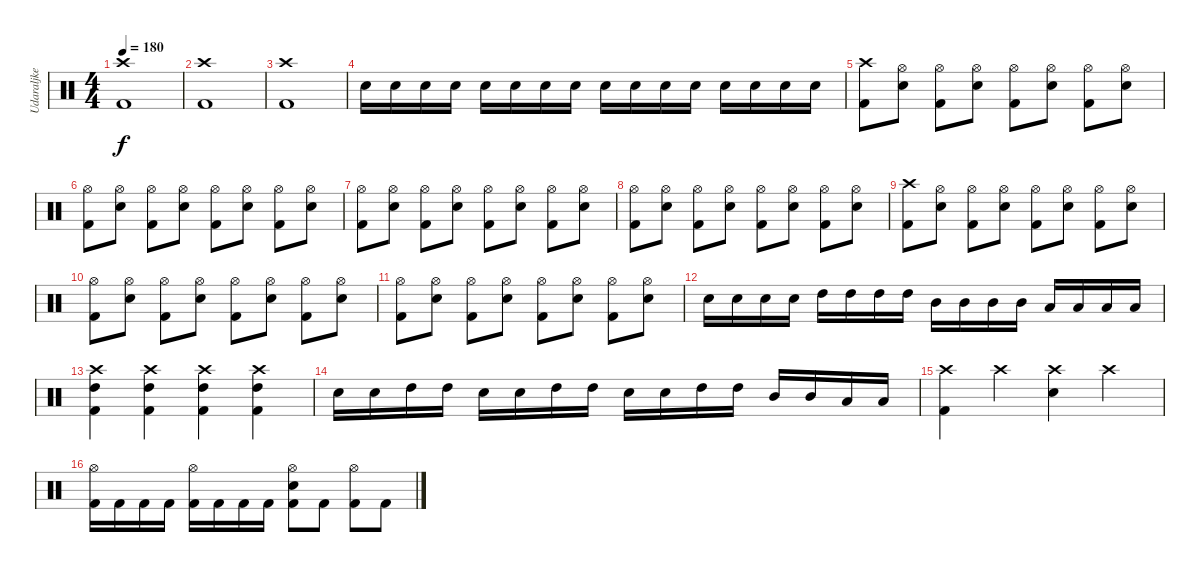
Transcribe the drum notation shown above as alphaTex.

\track ("Udaraljke" "Udaraljke") {instrument percussion}
\staff {score}
\articulation defaults
\ts (4 4)
\tempo 180
\clef neutral
\ks c
("Crash high (hit)" "Kick (hit) 2").1{dy f} |
("Crash high (hit)" "Kick (hit) 2").1 |
("Crash high (hit)" "Kick (hit) 2").1 |
"Electric Snare (hit)".16 "Electric Snare (hit)".16 "Electric Snare (hit)".16 "Electric Snare (hit)".16 "Electric Snare (hit)".16 "Electric Snare (hit)".16 "Electric Snare (hit)".16 "Electric Snare (hit)".16 "Electric Snare (hit)".16 "Electric Snare (hit)".16 "Electric Snare (hit)".16 "Electric Snare (hit)".16 "Electric Snare (hit)".16 "Electric Snare (hit)".16 "Electric Snare (hit)".16 "Electric Snare (hit)".16 |
("Crash high (hit)" "Kick (hit) 2").8 ("Hi-Hat (open)" "Electric Snare (hit)").8 ("Hi-Hat (open)" "Kick (hit) 2").8 ("Hi-Hat (open)" "Electric Snare (hit)").8 ("Hi-Hat (open)" "Kick (hit) 2").8 ("Hi-Hat (open)" "Electric Snare (hit)").8 ("Hi-Hat (open)" "Kick (hit) 2").8 ("Hi-Hat (open)" "Electric Snare (hit)").8 |
("Hi-Hat (open)" "Kick (hit) 2").8 ("Hi-Hat (open)" "Electric Snare (hit)").8 ("Hi-Hat (open)" "Kick (hit) 2").8 ("Hi-Hat (open)" "Electric Snare (hit)").8 ("Hi-Hat (open)" "Kick (hit) 2").8 ("Hi-Hat (open)" "Electric Snare (hit)").8 ("Hi-Hat (open)" "Kick (hit) 2").8 ("Hi-Hat (open)" "Electric Snare (hit)").8 |
("Hi-Hat (open)" "Kick (hit) 2").8 ("Hi-Hat (open)" "Electric Snare (hit)").8 ("Hi-Hat (open)" "Kick (hit) 2").8 ("Hi-Hat (open)" "Electric Snare (hit)").8 ("Hi-Hat (open)" "Kick (hit) 2").8 ("Hi-Hat (open)" "Electric Snare (hit)").8 ("Hi-Hat (open)" "Kick (hit) 2").8 ("Hi-Hat (open)" "Electric Snare (hit)").8 |
("Hi-Hat (open)" "Kick (hit) 2").8 ("Hi-Hat (open)" "Electric Snare (hit)").8 ("Hi-Hat (open)" "Kick (hit) 2").8 ("Hi-Hat (open)" "Electric Snare (hit)").8 ("Hi-Hat (open)" "Kick (hit) 2").8 ("Hi-Hat (open)" "Electric Snare (hit)").8 ("Hi-Hat (open)" "Kick (hit) 2").8 ("Hi-Hat (open)" "Electric Snare (hit)").8 |
("Crash high (hit)" "Kick (hit) 2").8 ("Hi-Hat (open)" "Electric Snare (hit)").8 ("Hi-Hat (open)" "Kick (hit) 2").8 ("Hi-Hat (open)" "Electric Snare (hit)").8 ("Hi-Hat (open)" "Kick (hit) 2").8 ("Hi-Hat (open)" "Electric Snare (hit)").8 ("Hi-Hat (open)" "Kick (hit) 2").8 ("Hi-Hat (open)" "Electric Snare (hit)").8 |
("Hi-Hat (open)" "Kick (hit) 2").8 ("Hi-Hat (open)" "Electric Snare (hit)").8 ("Hi-Hat (open)" "Kick (hit) 2").8 ("Hi-Hat (open)" "Electric Snare (hit)").8 ("Hi-Hat (open)" "Kick (hit) 2").8 ("Hi-Hat (open)" "Electric Snare (hit)").8 ("Hi-Hat (open)" "Kick (hit) 2").8 ("Hi-Hat (open)" "Electric Snare (hit)").8 |
("Hi-Hat (open)" "Kick (hit) 2").8 ("Hi-Hat (open)" "Electric Snare (hit)").8 ("Hi-Hat (open)" "Kick (hit) 2").8 ("Hi-Hat (open)" "Electric Snare (hit)").8 ("Hi-Hat (open)" "Kick (hit) 2").8 ("Hi-Hat (open)" "Electric Snare (hit)").8 ("Hi-Hat (open)" "Kick (hit) 2").8 ("Hi-Hat (open)" "Electric Snare (hit)").8 |
"Electric Snare (hit)".16 "Electric Snare (hit)".16 "Electric Snare (hit)".16 "Electric Snare (hit)".16 "High Tom (hit)".16 "High Tom (hit)".16 "High Tom (hit)".16 "High Tom (hit)".16 "Mid Tom (hit)".16 "Mid Tom (hit)".16 "Mid Tom (hit)".16 "Mid Tom (hit)".16 "Low Tom (hit)".16 "Low Tom (hit)".16 "Low Tom (hit)".16 "Low Tom (hit)".16 |
("Kick (hit) 2" "High Tom (hit)" "Crash high (hit)").4 ("Kick (hit) 2" "High Tom (hit)" "Crash high (hit)").4 ("Kick (hit) 2" "High Tom (hit)" "Crash high (hit)").4 ("Kick (hit) 2" "High Tom (hit)" "Crash high (hit)").4 |
"Electric Snare (hit)".16 "Electric Snare (hit)".16 "High Tom (hit)".16 "High Tom (hit)".16 "Electric Snare (hit)".16 "Electric Snare (hit)".16 "High Tom (hit)".16 "High Tom (hit)".16 "Electric Snare (hit)".16 "Electric Snare (hit)".16 "High Tom (hit)".16 "High Tom (hit)".16 "Mid Tom (hit)".16 "Mid Tom (hit)".16 "Low Tom (hit)".16 "Low Tom (hit)".16 |
("Crash high (hit)" "Kick (hit) 2").4 "Crash high (hit)".4 ("Crash high (hit)" "Electric Snare (hit)").4 "Crash high (hit)".4 |
("Hi-Hat (open)" "Kick (hit) 2").16 "Kick (hit) 2".16 "Kick (hit) 2".16 "Kick (hit) 2".16 ("Hi-Hat (open)" "Kick (hit) 2").16 "Kick (hit) 2".16 "Kick (hit) 2".16 "Kick (hit) 2".16 ("Hi-Hat (open)" "Electric Snare (hit)" "Kick (hit) 2").8 "Kick (hit) 2".8 ("Hi-Hat (open)" "Kick (hit) 2").8 "Kick (hit) 2".8
